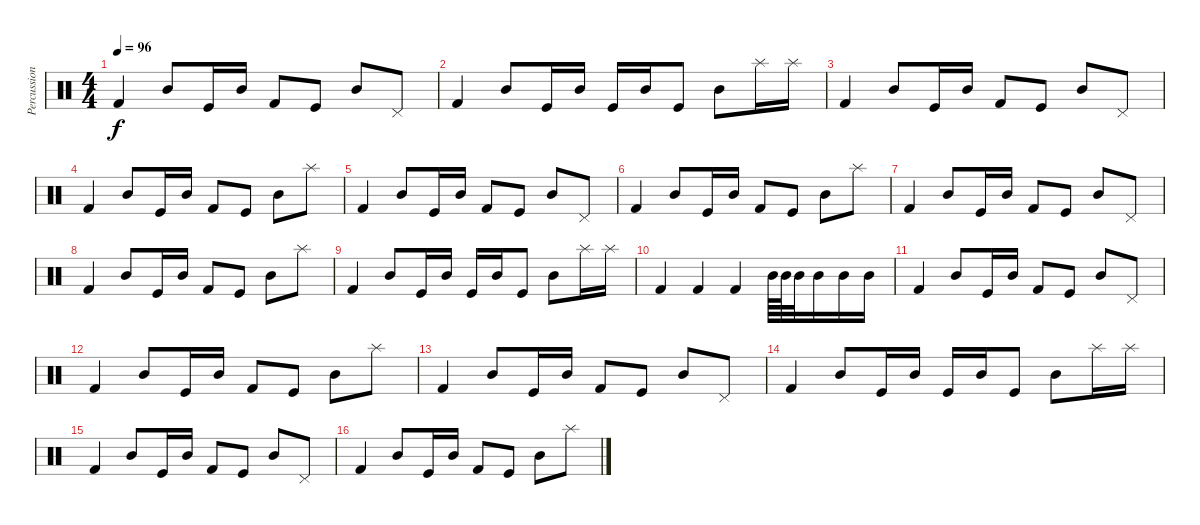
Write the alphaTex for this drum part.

\track ("Percussions" "Percussion") {instrument percussion}
\staff {score}
\articulation defaults
\ts (4 4)
\tempo 96
\clef neutral
\ks c "Kick (hit) 2".4{dy f} "Mid Tom (hit)".8 "Kick (hit)".16 "Mid Tom (hit)".16 "Kick (hit) 2".8 "Kick (hit)".8 "Mid Tom (hit)".8 "Pedal Hi-Hat (hit)".8
|
"Kick (hit) 2".4 "Mid Tom (hit)".8 "Kick (hit)".16 "Mid Tom (hit)".16 "Kick (hit)".16 "Mid Tom (hit)".16 "Kick (hit)".8 "Mid Tom (hit)".8 "Splash (hit)".16 "Splash (hit)".16 |
"Kick (hit) 2".4 "Mid Tom (hit)".8 "Kick (hit)".16 "Mid Tom (hit)".16 "Kick (hit) 2".8 "Kick (hit)".8 "Mid Tom (hit)".8 "Pedal Hi-Hat (hit)".8 |
"Kick (hit) 2".4 "Mid Tom (hit)".8 "Kick (hit)".16 "Mid Tom (hit)".16 "Kick (hit) 2".8 "Kick (hit)".8 "Mid Tom (hit)".8 "Splash (hit)".8 |
"Kick (hit) 2".4 "Mid Tom (hit)".8 "Kick (hit)".16 "Mid Tom (hit)".16 "Kick (hit) 2".8 "Kick (hit)".8 "Mid Tom (hit)".8 "Pedal Hi-Hat (hit)".8 |
"Kick (hit) 2".4 "Mid Tom (hit)".8 "Kick (hit)".16 "Mid Tom (hit)".16 "Kick (hit) 2".8 "Kick (hit)".8 "Mid Tom (hit)".8 "Splash (hit)".8 |
"Kick (hit) 2".4 "Mid Tom (hit)".8 "Kick (hit)".16 "Mid Tom (hit)".16 "Kick (hit) 2".8 "Kick (hit)".8 "Mid Tom (hit)".8 "Pedal Hi-Hat (hit)".8 |
"Kick (hit) 2".4 "Mid Tom (hit)".8 "Kick (hit)".16 "Mid Tom (hit)".16 "Kick (hit) 2".8 "Kick (hit)".8 "Mid Tom (hit)".8 "Splash (hit)".8 |
"Kick (hit) 2".4 "Mid Tom (hit)".8 "Kick (hit)".16 "Mid Tom (hit)".16 "Kick (hit)".16 "Mid Tom (hit)".16 "Kick (hit)".8 "Mid Tom (hit)".8 "Splash (hit)".16 "Splash (hit)".16 |
"Kick (hit) 2".4 "Kick (hit) 2".4 "Kick (hit) 2".4 "Mid Tom (hit)".64 "Mid Tom (hit)".64 "Mid Tom (hit)".32 "Mid Tom (hit)".16 "Mid Tom (hit)".16 "Mid Tom (hit)".16 |
"Kick (hit) 2".4{volume 16} "Mid Tom (hit)".8 "Kick (hit)".16 "Mid Tom (hit)".16 "Kick (hit) 2".8 "Kick (hit)".8 "Mid Tom (hit)".8 "Pedal Hi-Hat (hit)".8 |
"Kick (hit) 2".4 "Mid Tom (hit)".8 "Kick (hit)".16 "Mid Tom (hit)".16 "Kick (hit) 2".8 "Kick (hit)".8 "Mid Tom (hit)".8 "Splash (hit)".8 |
"Kick (hit) 2".4 "Mid Tom (hit)".8 "Kick (hit)".16 "Mid Tom (hit)".16 "Kick (hit) 2".8 "Kick (hit)".8 "Mid Tom (hit)".8 "Pedal Hi-Hat (hit)".8 |
"Kick (hit) 2".4 "Mid Tom (hit)".8 "Kick (hit)".16 "Mid Tom (hit)".16 "Kick (hit)".16 "Mid Tom (hit)".16 "Kick (hit)".8 "Mid Tom (hit)".8 "Splash (hit)".16 "Splash (hit)".16 |
"Kick (hit) 2".4{volume 16} "Mid Tom (hit)".8 "Kick (hit)".16 "Mid Tom (hit)".16 "Kick (hit) 2".8 "Kick (hit)".8 "Mid Tom (hit)".8 "Pedal Hi-Hat (hit)".8 |
"Kick (hit) 2".4 "Mid Tom (hit)".8 "Kick (hit)".16 "Mid Tom (hit)".16 "Kick (hit) 2".8 "Kick (hit)".8 "Mid Tom (hit)".8 "Splash (hit)".8
